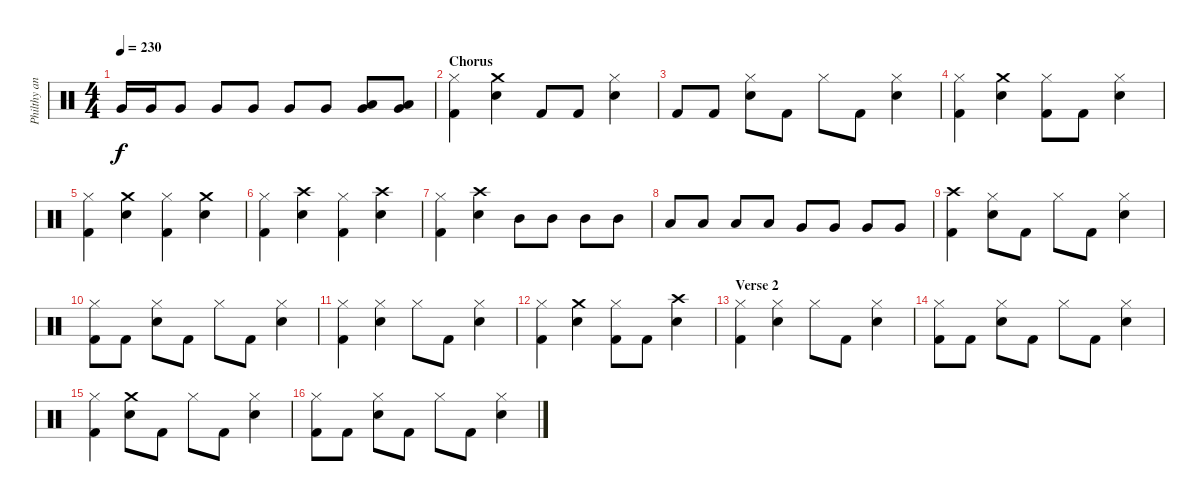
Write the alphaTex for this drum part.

\track ("Philthy animal Taylor" "Philthy an") {instrument percussion}
\staff {score}
\articulation defaults
\ts (4 4)
\tempo 230
\clef neutral
\ks c "Very Low Tom (hit)".16{dy f} "Very Low Tom (hit)".16 "Very Low Tom (hit)".8 "Very Low Tom (hit)".8 "Very Low Tom (hit)".8 "Very Low Tom (hit)".8 "Very Low Tom (hit)".8
("Very Low Tom (hit)" "Low Floor Tom (hit)").8 ("Very Low Tom (hit)" "Low Floor Tom (hit)").8 |
\section ("" "Chorus")
("Hi-Hat (closed)" "Kick (hit) 2").4 ("Crash medium (hit)" "Snare (hit) 2").4 "Kick (hit) 2".8 "Kick (hit) 2".8 ("Hi-Hat (closed)" "Snare (hit) 2").4 |
"Kick (hit) 2".8 "Kick (hit) 2".8 ("Hi-Hat (closed)" "Snare (hit) 2").8 "Kick (hit) 2".8 "Hi-Hat (closed)".8 "Kick (hit) 2".8 ("Hi-Hat (closed)" "Snare (hit) 2").4 |
("Hi-Hat (closed)" "Kick (hit) 2").4 ("Crash medium (hit)" "Snare (hit) 2").4 ("Hi-Hat (closed)" "Kick (hit) 2").8 "Kick (hit) 2".8 ("Hi-Hat (closed)" "Snare (hit) 2").4 |
("Hi-Hat (closed)" "Kick (hit) 2").4 ("Crash medium (hit)" "Snare (hit) 2").4 ("Hi-Hat (closed)" "Kick (hit) 2").4 ("Crash medium (hit)" "Snare (hit) 2").4 |
("Hi-Hat (closed)" "Kick (hit) 2").4 ("Crash high (hit)" "Snare (hit) 2").4 ("Hi-Hat (closed)" "Kick (hit) 2").4 ("Crash high (hit)" "Snare (hit) 2").4 |
("Hi-Hat (closed)" "Kick (hit) 2").4 ("Crash high (hit)" "Snare (hit) 2").4 "Mid Tom (hit)".8 "Mid Tom (hit)".8 "Mid Tom (hit)".8 "Mid Tom (hit)".8 |
"Low Tom (hit)".8 "Low Tom (hit)".8 "Low Tom (hit)".8 "Low Tom (hit)".8 "Very Low Tom (hit)".8 "Very Low Tom (hit)".8 "Very Low Tom (hit)".8 "Very Low Tom (hit)".8 |
("Crash high (hit)" "Kick (hit) 2").4 ("Hi-Hat (closed)" "Snare (hit) 2").8 "Kick (hit) 2".8 "Hi-Hat (closed)".8 "Kick (hit) 2".8 ("Hi-Hat (closed)" "Snare (hit) 2").4 |
("Hi-Hat (closed)" "Kick (hit) 2").8 "Kick (hit) 2".8 ("Hi-Hat (closed)" "Snare (hit) 2").8 "Kick (hit) 2".8 "Hi-Hat (closed)".8 "Kick (hit) 2".8 ("Hi-Hat (closed)" "Snare (hit) 2").4 |
("Hi-Hat (closed)" "Kick (hit) 2").4 ("Hi-Hat (closed)" "Snare (hit) 2").4 "Hi-Hat (closed)".8 "Kick (hit) 2".8 ("Hi-Hat (closed)" "Snare (hit) 2").4 |
("Hi-Hat (closed)" "Kick (hit) 2").4 ("Crash medium (hit)" "Snare (hit) 2").4 ("Hi-Hat (closed)" "Kick (hit) 2").8 "Kick (hit) 2".8 ("Crash high (hit)" "Snare (hit) 2").4 |
\section ("" "Verse 2")
("Hi-Hat (closed)" "Kick (hit) 2").4 ("Hi-Hat (closed)" "Snare (hit) 2").4 "Hi-Hat (closed)".8 "Kick (hit) 2".8 ("Hi-Hat (closed)" "Snare (hit) 2").4 |
("Hi-Hat (closed)" "Kick (hit) 2").8 "Kick (hit) 2".8 ("Hi-Hat (closed)" "Snare (hit) 2").8 "Kick (hit) 2".8 "Hi-Hat (closed)".8 "Kick (hit) 2".8 ("Hi-Hat (closed)" "Snare (hit) 2").4 |
("Hi-Hat (closed)" "Kick (hit) 2").4 ("Crash medium (hit)" "Snare (hit) 2").8 "Kick (hit) 2".8 "Hi-Hat (closed)".8 "Kick (hit) 2".8 ("Hi-Hat (closed)" "Snare (hit) 2").4 |
("Hi-Hat (closed)" "Kick (hit) 2").8 "Kick (hit) 2".8 ("Hi-Hat (closed)" "Snare (hit) 2").8 "Kick (hit) 2".8 "Hi-Hat (closed)".8 "Kick (hit) 2".8 ("Hi-Hat (closed)" "Snare (hit) 2").4
